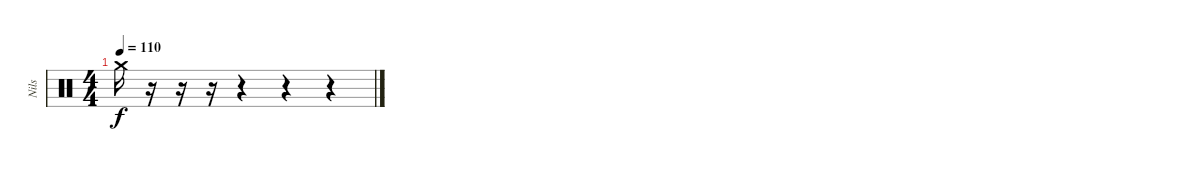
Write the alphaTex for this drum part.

\track ("Nils" "Nils") {instrument percussion}
\staff {score}
\articulation defaults
\ts (4 4)
\tempo 110
\clef neutral
\ks c "Crash medium (hit)".16{dy f}
r.16 r.16 r.16 r.4 r.4 r.4
